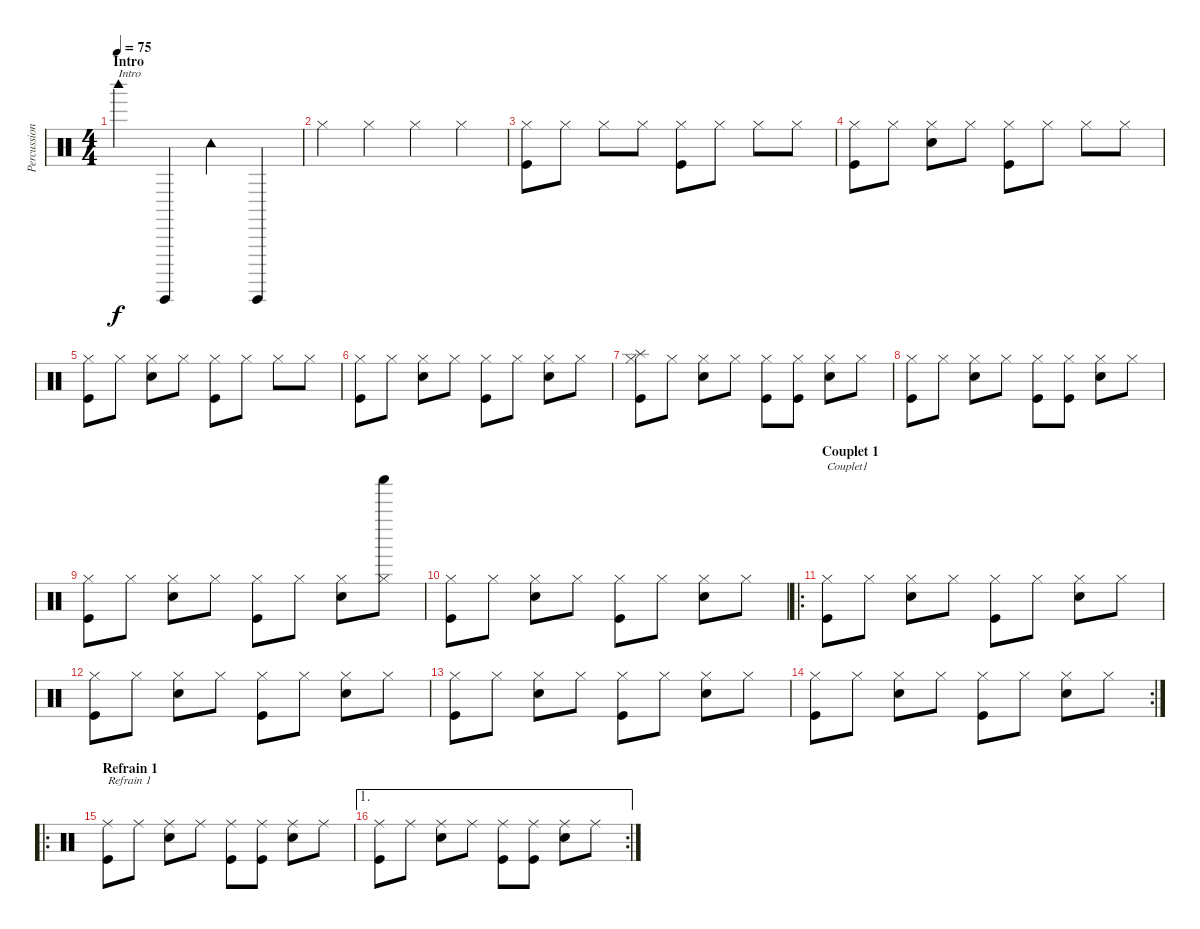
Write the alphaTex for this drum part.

\track ("Percussions" "Percussion") {instrument percussion}
\staff {score}
\articulation defaults
\ts (4 4)
\section ("" "Intro")
\tempo 75
\clef neutral
\ks c "Woodblock high (hit)".4{txt "Intro" dy f} "Guiro (hit)".4 "Tambourine (hit)".4 "Guiro (hit)".4
|
"Hi-Hat (closed)".4 "Hi-Hat (closed)".4 "Hi-Hat (closed)".4 "Hi-Hat (closed)".4 |
("Hi-Hat (closed)" "Kick (hit)").8 "Hi-Hat (closed)".8 "Hi-Hat (closed)".8 "Hi-Hat (closed)".8 ("Hi-Hat (closed)" "Kick (hit)").8 "Hi-Hat (closed)".8 "Hi-Hat (closed)".8 "Hi-Hat (closed)".8 |
("Hi-Hat (closed)" "Kick (hit)").8 "Hi-Hat (closed)".8 ("Hi-Hat (closed)" "Snare (hit) 2").8 "Hi-Hat (closed)".8 ("Hi-Hat (closed)" "Kick (hit)").8 "Hi-Hat (closed)".8 "Hi-Hat (closed)".8 "Hi-Hat (closed)".8 |
("Hi-Hat (closed)" "Kick (hit)").8 "Hi-Hat (closed)".8 ("Hi-Hat (closed)" "Snare (hit) 2").8 "Hi-Hat (closed)".8 ("Hi-Hat (closed)" "Kick (hit)").8 "Hi-Hat (closed)".8 "Hi-Hat (closed)".8 "Hi-Hat (closed)".8 |
("Hi-Hat (closed)" "Kick (hit)").8 "Hi-Hat (closed)".8 ("Hi-Hat (closed)" "Snare (hit) 2").8 "Hi-Hat (closed)".8 ("Hi-Hat (closed)" "Kick (hit)").8 "Hi-Hat (closed)".8 ("Hi-Hat (closed)" "Snare (hit) 2").8 "Hi-Hat (closed)".8 |
("Hi-Hat (closed)" "Splash (hit)" "Kick (hit)").8 "Hi-Hat (closed)".8 ("Hi-Hat (closed)" "Snare (hit) 2").8 "Hi-Hat (closed)".8 ("Hi-Hat (closed)" "Kick (hit)").8 ("Hi-Hat (closed)" "Kick (hit)").8 ("Hi-Hat (closed)" "Snare (hit) 2").8 "Hi-Hat (closed)".8 |
("Hi-Hat (closed)" "Kick (hit)").8 "Hi-Hat (closed)".8 ("Hi-Hat (closed)" "Snare (hit) 2").8 "Hi-Hat (closed)".8 ("Hi-Hat (closed)" "Kick (hit)").8 ("Hi-Hat (closed)" "Kick (hit)").8 ("Hi-Hat (closed)" "Snare (hit) 2").8 "Hi-Hat (closed)".8 |
("Hi-Hat (closed)" "Kick (hit)").8 "Hi-Hat (closed)".8 ("Hi-Hat (closed)" "Snare (hit) 2").8 "Hi-Hat (closed)".8 ("Hi-Hat (closed)" "Kick (hit)").8 "Hi-Hat (closed)".8 ("Hi-Hat (closed)" "Snare (hit) 2").8 ("Hi-Hat (closed)" "Shaker (hit)").8 |
("Hi-Hat (closed)" "Kick (hit)").8 "Hi-Hat (closed)".8 ("Hi-Hat (closed)" "Snare (hit) 2").8 "Hi-Hat (closed)".8 ("Hi-Hat (closed)" "Kick (hit)").8 "Hi-Hat (closed)".8 ("Hi-Hat (closed)" "Snare (hit) 2").8 "Hi-Hat (closed)".8 |
\ro
\section ("" "Couplet 1")
("Hi-Hat (closed)" "Kick (hit)").8{txt "Couplet1"} "Hi-Hat (closed)".8 ("Hi-Hat (closed)" "Snare (hit) 2").8 "Hi-Hat (closed)".8 ("Hi-Hat (closed)" "Kick (hit)").8 "Hi-Hat (closed)".8 ("Hi-Hat (closed)" "Snare (hit) 2").8 "Hi-Hat (closed)".8 |
("Hi-Hat (closed)" "Kick (hit)").8 "Hi-Hat (closed)".8 ("Hi-Hat (closed)" "Snare (hit) 2").8 "Hi-Hat (closed)".8 ("Hi-Hat (closed)" "Kick (hit)").8 "Hi-Hat (closed)".8 ("Hi-Hat (closed)" "Snare (hit) 2").8 "Hi-Hat (closed)".8 |
("Hi-Hat (closed)" "Kick (hit)").8 "Hi-Hat (closed)".8 ("Hi-Hat (closed)" "Snare (hit) 2").8 "Hi-Hat (closed)".8 ("Hi-Hat (closed)" "Kick (hit)").8 "Hi-Hat (closed)".8 ("Hi-Hat (closed)" "Snare (hit) 2").8 "Hi-Hat (closed)".8 |
\rc 2
("Hi-Hat (closed)" "Kick (hit)").8 "Hi-Hat (closed)".8 ("Hi-Hat (closed)" "Snare (hit) 2").8 "Hi-Hat (closed)".8 ("Hi-Hat (closed)" "Kick (hit)").8 "Hi-Hat (closed)".8 ("Hi-Hat (closed)" "Snare (hit) 2").8 "Hi-Hat (closed)".8 |
\ro
\section ("" "Refrain 1")
("Ride (middle)" "Kick (hit)").8{txt "Refrain 1"} "Ride (middle)".8 ("Ride (middle)" "Snare (hit) 2").8 "Ride (middle)".8 ("Ride (middle)" "Kick (hit)").8 ("Ride (middle)" "Kick (hit)").8 ("Ride (middle)" "Snare (hit) 2").8 "Ride (middle)".8 |
\ae 1
\rc 2
("Ride (middle)" "Kick (hit)").8 "Ride (middle)".8 ("Ride (middle)" "Snare (hit) 2").8 "Ride (middle)".8 ("Ride (middle)" "Kick (hit)").8 ("Ride (middle)" "Kick (hit)").8 ("Ride (middle)" "Snare (hit) 2").8 "Ride (middle)".8
